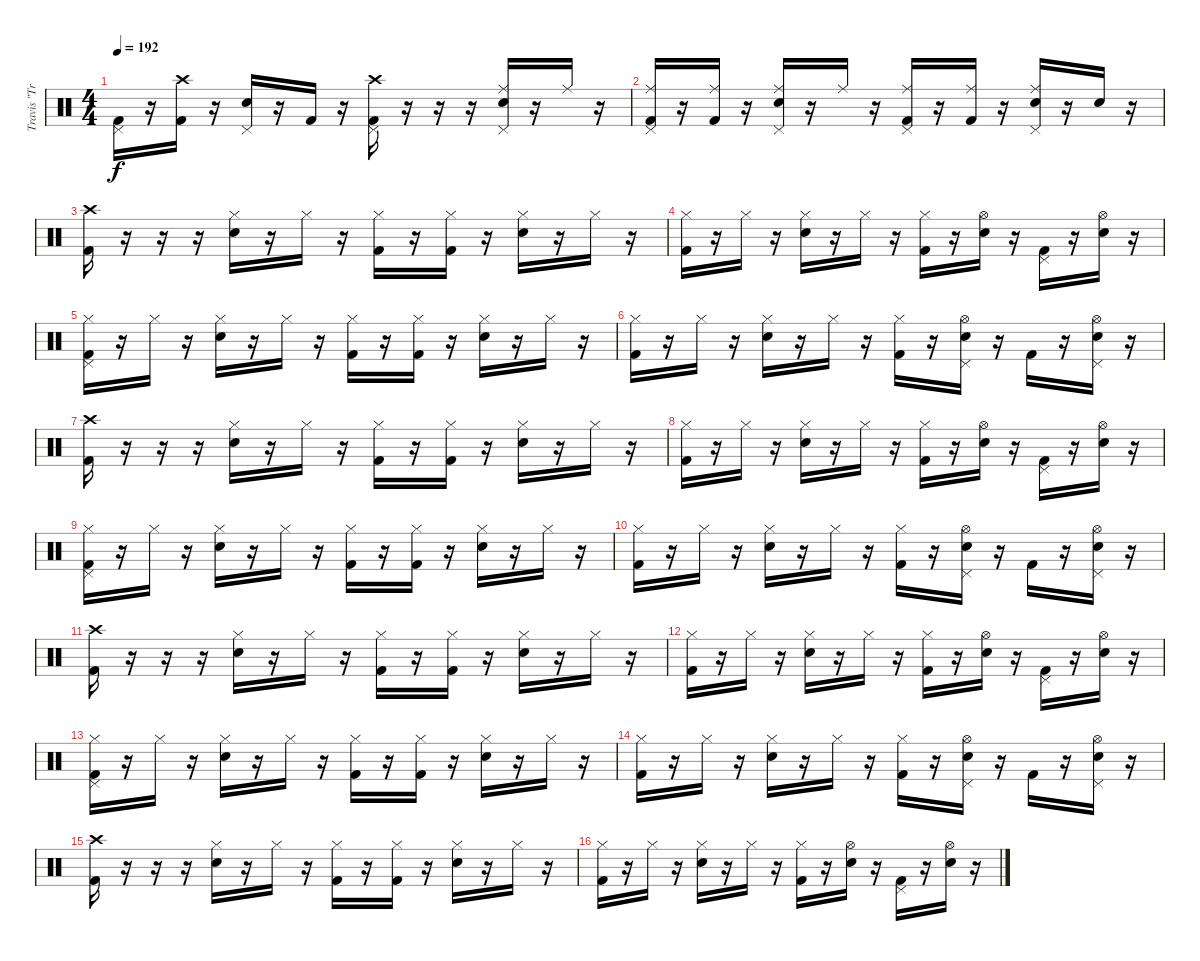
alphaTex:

\track ("Travis \"Trevor\" Barker" "Travis \"Tr") {instrument percussion}
\staff {score}
\articulation defaults
\ts (4 4)
\tempo 192
\clef neutral
\ks c
("Pedal Hi-Hat (hit)" "Kick (hit) 2").16{dy f} r.16 ("Crash high (hit)" "Kick (hit) 2").16 r.16 ("Pedal Hi-Hat (hit)" "Snare (hit) 2").16 r.16 "Kick (hit) 2".16 r.16 ("Crash high (hit)" "Pedal Hi-Hat (hit)" "Kick (hit) 2").16 r.16 r.16 r.16 ("Ride (middle)" "Pedal Hi-Hat (hit)" "Snare (hit) 2").16 r.16 "Ride (middle)".16 r.16 |
("Ride (middle)" "Pedal Hi-Hat (hit)" "Kick (hit) 2").16 r.16 ("Ride (middle)" "Kick (hit) 2").16 r.16 ("Ride (middle)" "Pedal Hi-Hat (hit)" "Snare (hit) 2").16 r.16 "Ride (middle)".16 r.16 ("Ride (middle)" "Pedal Hi-Hat (hit)" "Kick (hit) 2").16 r.16 ("Ride (middle)" "Kick (hit) 2").16 r.16 ("Ride (middle)" "Pedal Hi-Hat (hit)" "Snare (hit) 2").16 r.16 "Snare (hit) 2".16 r.16 |
("Crash high (hit)" "Kick (hit) 2").16 r.16 r.16 r.16 ("Hi-Hat (closed)" "Snare (hit) 2").16 r.16 "Hi-Hat (closed)".16 r.16 ("Hi-Hat (closed)" "Kick (hit) 2").16 r.16 ("Hi-Hat (closed)" "Kick (hit) 2").16 r.16 ("Hi-Hat (closed)" "Snare (hit) 2").16 r.16 "Hi-Hat (closed)".16 r.16 |
("Hi-Hat (closed)" "Kick (hit) 2").16 r.16 "Hi-Hat (closed)".16 r.16 ("Hi-Hat (closed)" "Snare (hit) 2").16 r.16 "Hi-Hat (closed)".16 r.16 ("Hi-Hat (closed)" "Kick (hit) 2").16 r.16 ("Hi-Hat (open)" "Snare (hit) 2").16 r.16 ("Pedal Hi-Hat (hit)" "Kick (hit) 2").16 r.16 ("Hi-Hat (open)" "Snare (hit) 2").16 r.16 |
("Hi-Hat (closed)" "Pedal Hi-Hat (hit)" "Kick (hit) 2").16 r.16 "Hi-Hat (closed)".16 r.16 ("Hi-Hat (closed)" "Snare (hit) 2").16 r.16 "Hi-Hat (closed)".16 r.16 ("Hi-Hat (closed)" "Kick (hit) 2").16 r.16 ("Hi-Hat (closed)" "Kick (hit) 2").16 r.16 ("Hi-Hat (closed)" "Snare (hit) 2").16 r.16 "Hi-Hat (closed)".16 r.16 |
("Hi-Hat (closed)" "Kick (hit) 2").16 r.16 "Hi-Hat (closed)".16 r.16 ("Hi-Hat (closed)" "Snare (hit) 2").16 r.16 "Hi-Hat (closed)".16 r.16 ("Hi-Hat (closed)" "Kick (hit) 2").16 r.16 ("Hi-Hat (open)" "Pedal Hi-Hat (hit)" "Snare (hit) 2").16 r.16 "Kick (hit) 2".16 r.16 ("Hi-Hat (open)" "Pedal Hi-Hat (hit)" "Snare (hit) 2").16 r.16 |
("Crash high (hit)" "Kick (hit) 2").16 r.16 r.16 r.16 ("Hi-Hat (closed)" "Snare (hit) 2").16 r.16 "Hi-Hat (closed)".16 r.16 ("Hi-Hat (closed)" "Kick (hit) 2").16 r.16 ("Hi-Hat (closed)" "Kick (hit) 2").16 r.16 ("Hi-Hat (closed)" "Snare (hit) 2").16 r.16 "Hi-Hat (closed)".16 r.16 |
("Hi-Hat (closed)" "Kick (hit) 2").16 r.16 "Hi-Hat (closed)".16 r.16 ("Hi-Hat (closed)" "Snare (hit) 2").16 r.16 "Hi-Hat (closed)".16 r.16 ("Hi-Hat (closed)" "Kick (hit) 2").16 r.16 ("Hi-Hat (open)" "Snare (hit) 2").16 r.16 ("Pedal Hi-Hat (hit)" "Kick (hit) 2").16 r.16 ("Hi-Hat (open)" "Snare (hit) 2").16 r.16 |
("Hi-Hat (closed)" "Pedal Hi-Hat (hit)" "Kick (hit) 2").16 r.16 "Hi-Hat (closed)".16 r.16 ("Hi-Hat (closed)" "Snare (hit) 2").16 r.16 "Hi-Hat (closed)".16 r.16 ("Hi-Hat (closed)" "Kick (hit) 2").16 r.16 ("Hi-Hat (closed)" "Kick (hit) 2").16 r.16 ("Hi-Hat (closed)" "Snare (hit) 2").16 r.16 "Hi-Hat (closed)".16 r.16 |
("Hi-Hat (closed)" "Kick (hit) 2").16 r.16 "Hi-Hat (closed)".16 r.16 ("Hi-Hat (closed)" "Snare (hit) 2").16 r.16 "Hi-Hat (closed)".16 r.16 ("Hi-Hat (closed)" "Kick (hit) 2").16 r.16 ("Hi-Hat (open)" "Pedal Hi-Hat (hit)" "Snare (hit) 2").16 r.16 "Kick (hit) 2".16 r.16 ("Hi-Hat (open)" "Pedal Hi-Hat (hit)" "Snare (hit) 2").16 r.16 |
("Crash high (hit)" "Kick (hit) 2").16 r.16 r.16 r.16 ("Hi-Hat (closed)" "Snare (hit) 2").16 r.16 "Hi-Hat (closed)".16 r.16 ("Hi-Hat (closed)" "Kick (hit) 2").16 r.16 ("Hi-Hat (closed)" "Kick (hit) 2").16 r.16 ("Hi-Hat (closed)" "Snare (hit) 2").16 r.16 "Hi-Hat (closed)".16 r.16 |
("Hi-Hat (closed)" "Kick (hit) 2").16 r.16 "Hi-Hat (closed)".16 r.16 ("Hi-Hat (closed)" "Snare (hit) 2").16 r.16 "Hi-Hat (closed)".16 r.16 ("Hi-Hat (closed)" "Kick (hit) 2").16 r.16 ("Hi-Hat (open)" "Snare (hit) 2").16 r.16 ("Pedal Hi-Hat (hit)" "Kick (hit) 2").16 r.16 ("Hi-Hat (open)" "Snare (hit) 2").16 r.16 |
("Hi-Hat (closed)" "Pedal Hi-Hat (hit)" "Kick (hit) 2").16 r.16 "Hi-Hat (closed)".16 r.16 ("Hi-Hat (closed)" "Snare (hit) 2").16 r.16 "Hi-Hat (closed)".16 r.16 ("Hi-Hat (closed)" "Kick (hit) 2").16 r.16 ("Hi-Hat (closed)" "Kick (hit) 2").16 r.16 ("Hi-Hat (closed)" "Snare (hit) 2").16 r.16 "Hi-Hat (closed)".16 r.16 |
("Hi-Hat (closed)" "Kick (hit) 2").16 r.16 "Hi-Hat (closed)".16 r.16 ("Hi-Hat (closed)" "Snare (hit) 2").16 r.16 "Hi-Hat (closed)".16 r.16 ("Hi-Hat (closed)" "Kick (hit) 2").16 r.16 ("Hi-Hat (open)" "Pedal Hi-Hat (hit)" "Snare (hit) 2").16 r.16 "Kick (hit) 2".16 r.16 ("Hi-Hat (open)" "Pedal Hi-Hat (hit)" "Snare (hit) 2").16 r.16 |
("Crash high (hit)" "Kick (hit) 2").16 r.16 r.16 r.16 ("Hi-Hat (closed)" "Snare (hit) 2").16 r.16 "Hi-Hat (closed)".16 r.16 ("Hi-Hat (closed)" "Kick (hit) 2").16 r.16 ("Hi-Hat (closed)" "Kick (hit) 2").16 r.16 ("Hi-Hat (closed)" "Snare (hit) 2").16 r.16 "Hi-Hat (closed)".16 r.16 |
("Hi-Hat (closed)" "Kick (hit) 2").16 r.16 "Hi-Hat (closed)".16 r.16 ("Hi-Hat (closed)" "Snare (hit) 2").16 r.16 "Hi-Hat (closed)".16 r.16 ("Hi-Hat (closed)" "Kick (hit) 2").16 r.16 ("Hi-Hat (open)" "Snare (hit) 2").16 r.16 ("Pedal Hi-Hat (hit)" "Kick (hit) 2").16 r.16 ("Hi-Hat (open)" "Snare (hit) 2").16 r.16
